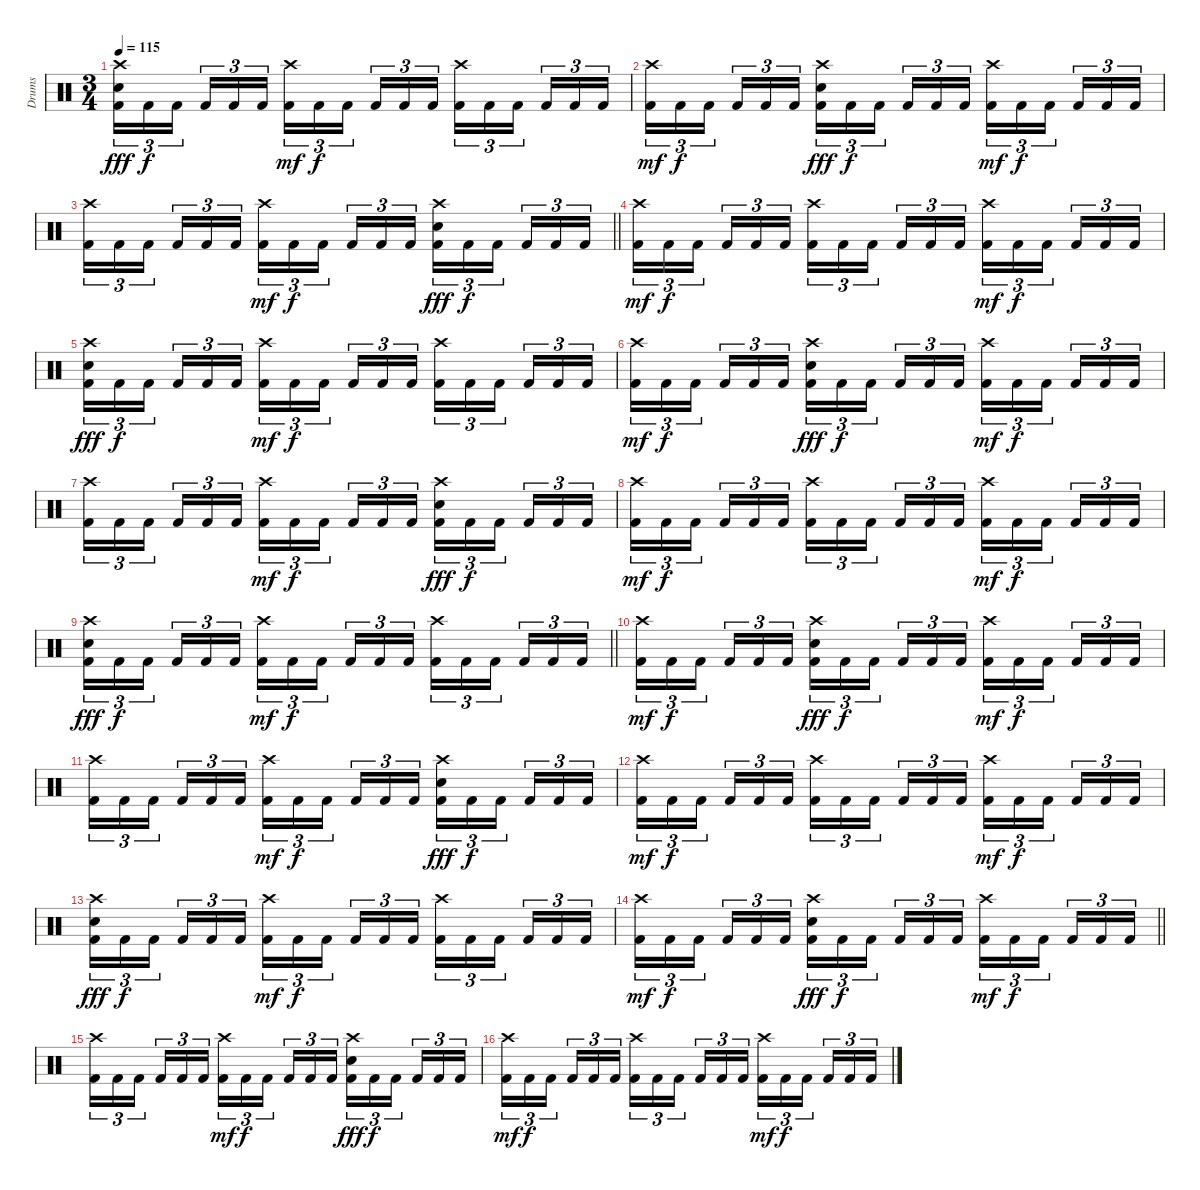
\track ("Drums" "Drums") {instrument percussion}
\staff {score}
\articulation defaults
\ts (3 4)
\tempo 115
\clef neutral
\ks c
("Crash high (hit)" "Snare (hit) 2" "Kick (hit) 2").16{tu (3 2) dy fff} "Kick (hit) 2".16{tu (3 2) dy f} "Kick (hit) 2".16{tu (3 2) beam splitsecondary} "Kick (hit) 2".16{tu (3 2)} "Kick (hit) 2".16{tu (3 2)} "Kick (hit) 2".16{tu (3 2)} ("Crash high (hit)" "Kick (hit) 2").16{tu (3 2) dy mf} "Kick (hit) 2".16{tu (3 2) dy f} "Kick (hit) 2".16{tu (3 2) beam splitsecondary} "Kick (hit) 2".16{tu (3 2)} "Kick (hit) 2".16{tu (3 2)} "Kick (hit) 2".16{tu (3 2)} ("Crash high (hit)" "Kick (hit) 2").16{tu (3 2)} "Kick (hit) 2".16{tu (3 2)} "Kick (hit) 2".16{tu (3 2) beam splitsecondary} "Kick (hit) 2".16{tu (3 2)} "Kick (hit) 2".16{tu (3 2)} "Kick (hit) 2".16{tu (3 2)} |
("Crash high (hit)" "Kick (hit) 2").16{tu (3 2) dy mf} "Kick (hit) 2".16{tu (3 2) dy f} "Kick (hit) 2".16{tu (3 2) beam splitsecondary} "Kick (hit) 2".16{tu (3 2)} "Kick (hit) 2".16{tu (3 2)} "Kick (hit) 2".16{tu (3 2)} ("Crash high (hit)" "Snare (hit) 2" "Kick (hit) 2").16{tu (3 2) dy fff} "Kick (hit) 2".16{tu (3 2) dy f} "Kick (hit) 2".16{tu (3 2) beam splitsecondary} "Kick (hit) 2".16{tu (3 2)} "Kick (hit) 2".16{tu (3 2)} "Kick (hit) 2".16{tu (3 2)} ("Crash high (hit)" "Kick (hit) 2").16{tu (3 2) dy mf} "Kick (hit) 2".16{tu (3 2) dy f} "Kick (hit) 2".16{tu (3 2) beam splitsecondary} "Kick (hit) 2".16{tu (3 2)} "Kick (hit) 2".16{tu (3 2)} "Kick (hit) 2".16{tu (3 2)} |
\barLineRight lightlight
("Crash high (hit)" "Kick (hit) 2").16{tu (3 2)} "Kick (hit) 2".16{tu (3 2)} "Kick (hit) 2".16{tu (3 2) beam splitsecondary} "Kick (hit) 2".16{tu (3 2)} "Kick (hit) 2".16{tu (3 2)} "Kick (hit) 2".16{tu (3 2)} ("Crash high (hit)" "Kick (hit) 2").16{tu (3 2) dy mf} "Kick (hit) 2".16{tu (3 2) dy f} "Kick (hit) 2".16{tu (3 2) beam splitsecondary} "Kick (hit) 2".16{tu (3 2)} "Kick (hit) 2".16{tu (3 2)} "Kick (hit) 2".16{tu (3 2)} ("Crash high (hit)" "Snare (hit) 2" "Kick (hit) 2").16{tu (3 2) dy fff} "Kick (hit) 2".16{tu (3 2) dy f} "Kick (hit) 2".16{tu (3 2) beam splitsecondary} "Kick (hit) 2".16{tu (3 2)} "Kick (hit) 2".16{tu (3 2)} "Kick (hit) 2".16{tu (3 2)} |
("Crash high (hit)" "Kick (hit) 2").16{tu (3 2) dy mf} "Kick (hit) 2".16{tu (3 2) dy f} "Kick (hit) 2".16{tu (3 2) beam splitsecondary} "Kick (hit) 2".16{tu (3 2)} "Kick (hit) 2".16{tu (3 2)} "Kick (hit) 2".16{tu (3 2)} ("Crash high (hit)" "Kick (hit) 2").16{tu (3 2)} "Kick (hit) 2".16{tu (3 2)} "Kick (hit) 2".16{tu (3 2) beam splitsecondary} "Kick (hit) 2".16{tu (3 2)} "Kick (hit) 2".16{tu (3 2)} "Kick (hit) 2".16{tu (3 2)} ("Crash high (hit)" "Kick (hit) 2").16{tu (3 2) dy mf} "Kick (hit) 2".16{tu (3 2) dy f} "Kick (hit) 2".16{tu (3 2) beam splitsecondary} "Kick (hit) 2".16{tu (3 2)} "Kick (hit) 2".16{tu (3 2)} "Kick (hit) 2".16{tu (3 2)} |
("Crash high (hit)" "Snare (hit) 2" "Kick (hit) 2").16{tu (3 2) dy fff} "Kick (hit) 2".16{tu (3 2) dy f} "Kick (hit) 2".16{tu (3 2) beam splitsecondary} "Kick (hit) 2".16{tu (3 2)} "Kick (hit) 2".16{tu (3 2)} "Kick (hit) 2".16{tu (3 2)} ("Crash high (hit)" "Kick (hit) 2").16{tu (3 2) dy mf} "Kick (hit) 2".16{tu (3 2) dy f} "Kick (hit) 2".16{tu (3 2) beam splitsecondary} "Kick (hit) 2".16{tu (3 2)} "Kick (hit) 2".16{tu (3 2)} "Kick (hit) 2".16{tu (3 2)} ("Crash high (hit)" "Kick (hit) 2").16{tu (3 2)} "Kick (hit) 2".16{tu (3 2)} "Kick (hit) 2".16{tu (3 2) beam splitsecondary} "Kick (hit) 2".16{tu (3 2)} "Kick (hit) 2".16{tu (3 2)} "Kick (hit) 2".16{tu (3 2)} |
("Crash high (hit)" "Kick (hit) 2").16{tu (3 2) dy mf} "Kick (hit) 2".16{tu (3 2) dy f} "Kick (hit) 2".16{tu (3 2) beam splitsecondary} "Kick (hit) 2".16{tu (3 2)} "Kick (hit) 2".16{tu (3 2)} "Kick (hit) 2".16{tu (3 2)} ("Crash high (hit)" "Snare (hit) 2" "Kick (hit) 2").16{tu (3 2) dy fff} "Kick (hit) 2".16{tu (3 2) dy f} "Kick (hit) 2".16{tu (3 2) beam splitsecondary} "Kick (hit) 2".16{tu (3 2)} "Kick (hit) 2".16{tu (3 2)} "Kick (hit) 2".16{tu (3 2)} ("Crash high (hit)" "Kick (hit) 2").16{tu (3 2) dy mf} "Kick (hit) 2".16{tu (3 2) dy f} "Kick (hit) 2".16{tu (3 2) beam splitsecondary} "Kick (hit) 2".16{tu (3 2)} "Kick (hit) 2".16{tu (3 2)} "Kick (hit) 2".16{tu (3 2)} |
("Crash high (hit)" "Kick (hit) 2").16{tu (3 2)} "Kick (hit) 2".16{tu (3 2)} "Kick (hit) 2".16{tu (3 2) beam splitsecondary} "Kick (hit) 2".16{tu (3 2)} "Kick (hit) 2".16{tu (3 2)} "Kick (hit) 2".16{tu (3 2)} ("Crash high (hit)" "Kick (hit) 2").16{tu (3 2) dy mf} "Kick (hit) 2".16{tu (3 2) dy f} "Kick (hit) 2".16{tu (3 2) beam splitsecondary} "Kick (hit) 2".16{tu (3 2)} "Kick (hit) 2".16{tu (3 2)} "Kick (hit) 2".16{tu (3 2)} ("Crash high (hit)" "Snare (hit) 2" "Kick (hit) 2").16{tu (3 2) dy fff} "Kick (hit) 2".16{tu (3 2) dy f} "Kick (hit) 2".16{tu (3 2) beam splitsecondary} "Kick (hit) 2".16{tu (3 2)} "Kick (hit) 2".16{tu (3 2)} "Kick (hit) 2".16{tu (3 2)} |
("Crash high (hit)" "Kick (hit) 2").16{tu (3 2) dy mf} "Kick (hit) 2".16{tu (3 2) dy f} "Kick (hit) 2".16{tu (3 2) beam splitsecondary} "Kick (hit) 2".16{tu (3 2)} "Kick (hit) 2".16{tu (3 2)} "Kick (hit) 2".16{tu (3 2)} ("Crash high (hit)" "Kick (hit) 2").16{tu (3 2)} "Kick (hit) 2".16{tu (3 2)} "Kick (hit) 2".16{tu (3 2) beam splitsecondary} "Kick (hit) 2".16{tu (3 2)} "Kick (hit) 2".16{tu (3 2)} "Kick (hit) 2".16{tu (3 2)} ("Crash high (hit)" "Kick (hit) 2").16{tu (3 2) dy mf} "Kick (hit) 2".16{tu (3 2) dy f} "Kick (hit) 2".16{tu (3 2) beam splitsecondary} "Kick (hit) 2".16{tu (3 2)} "Kick (hit) 2".16{tu (3 2)} "Kick (hit) 2".16{tu (3 2)} |
\barLineRight lightlight
("Crash high (hit)" "Snare (hit) 2" "Kick (hit) 2").16{tu (3 2) dy fff} "Kick (hit) 2".16{tu (3 2) dy f} "Kick (hit) 2".16{tu (3 2) beam splitsecondary} "Kick (hit) 2".16{tu (3 2)} "Kick (hit) 2".16{tu (3 2)} "Kick (hit) 2".16{tu (3 2)} ("Crash high (hit)" "Kick (hit) 2").16{tu (3 2) dy mf} "Kick (hit) 2".16{tu (3 2) dy f} "Kick (hit) 2".16{tu (3 2) beam splitsecondary} "Kick (hit) 2".16{tu (3 2)} "Kick (hit) 2".16{tu (3 2)} "Kick (hit) 2".16{tu (3 2)} ("Crash high (hit)" "Kick (hit) 2").16{tu (3 2)} "Kick (hit) 2".16{tu (3 2)} "Kick (hit) 2".16{tu (3 2) beam splitsecondary} "Kick (hit) 2".16{tu (3 2)} "Kick (hit) 2".16{tu (3 2)} "Kick (hit) 2".16{tu (3 2)} |
("Crash high (hit)" "Kick (hit) 2").16{tu (3 2) dy mf} "Kick (hit) 2".16{tu (3 2) dy f} "Kick (hit) 2".16{tu (3 2) beam splitsecondary} "Kick (hit) 2".16{tu (3 2)} "Kick (hit) 2".16{tu (3 2)} "Kick (hit) 2".16{tu (3 2)} ("Crash high (hit)" "Snare (hit) 2" "Kick (hit) 2").16{tu (3 2) dy fff} "Kick (hit) 2".16{tu (3 2) dy f} "Kick (hit) 2".16{tu (3 2) beam splitsecondary} "Kick (hit) 2".16{tu (3 2)} "Kick (hit) 2".16{tu (3 2)} "Kick (hit) 2".16{tu (3 2)} ("Crash high (hit)" "Kick (hit) 2").16{tu (3 2) dy mf} "Kick (hit) 2".16{tu (3 2) dy f} "Kick (hit) 2".16{tu (3 2) beam splitsecondary} "Kick (hit) 2".16{tu (3 2)} "Kick (hit) 2".16{tu (3 2)} "Kick (hit) 2".16{tu (3 2)} |
("Crash high (hit)" "Kick (hit) 2").16{tu (3 2)} "Kick (hit) 2".16{tu (3 2)} "Kick (hit) 2".16{tu (3 2) beam splitsecondary} "Kick (hit) 2".16{tu (3 2)} "Kick (hit) 2".16{tu (3 2)} "Kick (hit) 2".16{tu (3 2)} ("Crash high (hit)" "Kick (hit) 2").16{tu (3 2) dy mf} "Kick (hit) 2".16{tu (3 2) dy f} "Kick (hit) 2".16{tu (3 2) beam splitsecondary} "Kick (hit) 2".16{tu (3 2)} "Kick (hit) 2".16{tu (3 2)} "Kick (hit) 2".16{tu (3 2)} ("Crash high (hit)" "Snare (hit) 2" "Kick (hit) 2").16{tu (3 2) dy fff} "Kick (hit) 2".16{tu (3 2) dy f} "Kick (hit) 2".16{tu (3 2) beam splitsecondary} "Kick (hit) 2".16{tu (3 2)} "Kick (hit) 2".16{tu (3 2)} "Kick (hit) 2".16{tu (3 2)} |
("Crash high (hit)" "Kick (hit) 2").16{tu (3 2) dy mf} "Kick (hit) 2".16{tu (3 2) dy f} "Kick (hit) 2".16{tu (3 2) beam splitsecondary} "Kick (hit) 2".16{tu (3 2)} "Kick (hit) 2".16{tu (3 2)} "Kick (hit) 2".16{tu (3 2)} ("Crash high (hit)" "Kick (hit) 2").16{tu (3 2)} "Kick (hit) 2".16{tu (3 2)} "Kick (hit) 2".16{tu (3 2) beam splitsecondary} "Kick (hit) 2".16{tu (3 2)} "Kick (hit) 2".16{tu (3 2)} "Kick (hit) 2".16{tu (3 2)} ("Crash high (hit)" "Kick (hit) 2").16{tu (3 2) dy mf} "Kick (hit) 2".16{tu (3 2) dy f} "Kick (hit) 2".16{tu (3 2) beam splitsecondary} "Kick (hit) 2".16{tu (3 2)} "Kick (hit) 2".16{tu (3 2)} "Kick (hit) 2".16{tu (3 2)} |
("Crash high (hit)" "Snare (hit) 2" "Kick (hit) 2").16{tu (3 2) dy fff} "Kick (hit) 2".16{tu (3 2) dy f} "Kick (hit) 2".16{tu (3 2) beam splitsecondary} "Kick (hit) 2".16{tu (3 2)} "Kick (hit) 2".16{tu (3 2)} "Kick (hit) 2".16{tu (3 2)} ("Crash high (hit)" "Kick (hit) 2").16{tu (3 2) dy mf} "Kick (hit) 2".16{tu (3 2) dy f} "Kick (hit) 2".16{tu (3 2) beam splitsecondary} "Kick (hit) 2".16{tu (3 2)} "Kick (hit) 2".16{tu (3 2)} "Kick (hit) 2".16{tu (3 2)} ("Crash high (hit)" "Kick (hit) 2").16{tu (3 2)} "Kick (hit) 2".16{tu (3 2)} "Kick (hit) 2".16{tu (3 2) beam splitsecondary} "Kick (hit) 2".16{tu (3 2)} "Kick (hit) 2".16{tu (3 2)} "Kick (hit) 2".16{tu (3 2)} |
\barLineRight lightlight
("Crash high (hit)" "Kick (hit) 2").16{tu (3 2) dy mf} "Kick (hit) 2".16{tu (3 2) dy f} "Kick (hit) 2".16{tu (3 2) beam splitsecondary} "Kick (hit) 2".16{tu (3 2)} "Kick (hit) 2".16{tu (3 2)} "Kick (hit) 2".16{tu (3 2)} ("Crash high (hit)" "Snare (hit) 2" "Kick (hit) 2").16{tu (3 2) dy fff} "Kick (hit) 2".16{tu (3 2) dy f} "Kick (hit) 2".16{tu (3 2) beam splitsecondary} "Kick (hit) 2".16{tu (3 2)} "Kick (hit) 2".16{tu (3 2)} "Kick (hit) 2".16{tu (3 2)} ("Crash high (hit)" "Kick (hit) 2").16{tu (3 2) dy mf} "Kick (hit) 2".16{tu (3 2) dy f} "Kick (hit) 2".16{tu (3 2) beam splitsecondary} "Kick (hit) 2".16{tu (3 2)} "Kick (hit) 2".16{tu (3 2)} "Kick (hit) 2".16{tu (3 2)} |
("Crash high (hit)" "Kick (hit) 2").16{tu (3 2)} "Kick (hit) 2".16{tu (3 2)} "Kick (hit) 2".16{tu (3 2) beam splitsecondary} "Kick (hit) 2".16{tu (3 2)} "Kick (hit) 2".16{tu (3 2)} "Kick (hit) 2".16{tu (3 2)} ("Crash high (hit)" "Kick (hit) 2").16{tu (3 2) dy mf} "Kick (hit) 2".16{tu (3 2) dy f} "Kick (hit) 2".16{tu (3 2) beam splitsecondary} "Kick (hit) 2".16{tu (3 2)} "Kick (hit) 2".16{tu (3 2)} "Kick (hit) 2".16{tu (3 2)} ("Crash high (hit)" "Snare (hit) 2" "Kick (hit) 2").16{tu (3 2) dy fff} "Kick (hit) 2".16{tu (3 2) dy f} "Kick (hit) 2".16{tu (3 2) beam splitsecondary} "Kick (hit) 2".16{tu (3 2)} "Kick (hit) 2".16{tu (3 2)} "Kick (hit) 2".16{tu (3 2)} |
("Crash high (hit)" "Kick (hit) 2").16{tu (3 2) dy mf} "Kick (hit) 2".16{tu (3 2) dy f} "Kick (hit) 2".16{tu (3 2) beam splitsecondary} "Kick (hit) 2".16{tu (3 2)} "Kick (hit) 2".16{tu (3 2)} "Kick (hit) 2".16{tu (3 2)} ("Crash high (hit)" "Kick (hit) 2").16{tu (3 2)} "Kick (hit) 2".16{tu (3 2)} "Kick (hit) 2".16{tu (3 2) beam splitsecondary} "Kick (hit) 2".16{tu (3 2)} "Kick (hit) 2".16{tu (3 2)} "Kick (hit) 2".16{tu (3 2)} ("Crash high (hit)" "Kick (hit) 2").16{tu (3 2) dy mf} "Kick (hit) 2".16{tu (3 2) dy f} "Kick (hit) 2".16{tu (3 2) beam splitsecondary} "Kick (hit) 2".16{tu (3 2)} "Kick (hit) 2".16{tu (3 2)} "Kick (hit) 2".16{tu (3 2)}
